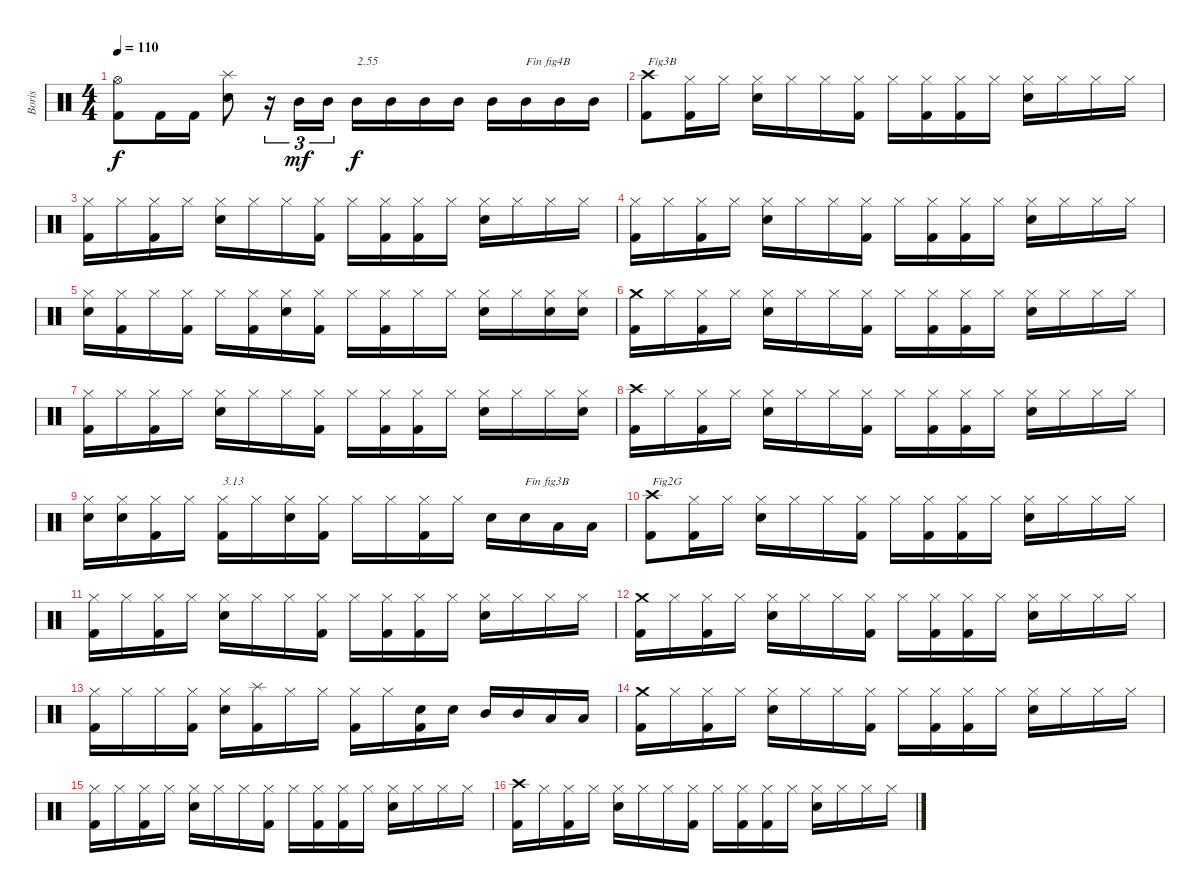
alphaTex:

\track ("Boris" "Boris") {instrument percussion}
\staff {score}
\articulation defaults
\ts (4 4)
\tempo 110
\clef neutral
\ks c
("Kick (hit) 2" "Hi-Hat (open)").8{dy f} "Kick (hit) 2".16 "Kick (hit) 2".16 ("Electric Snare (hit)" "Splash (hit)").8 r.16{tu (3 2)} "Mid Tom (hit)".16{tu (3 2) dy mf} "Mid Tom (hit)".16{tu (3 2)} "Mid Tom (hit)".16{txt "2.55" dy f} "Mid Tom (hit)".16 "Mid Tom (hit)".16 "Mid Tom (hit)".16 "Mid Tom (hit)".16 "Mid Tom (hit)".16{txt "Fin fig4B"} "Mid Tom (hit)".16 "Mid Tom (hit)".16 |
("Kick (hit) 2" "Crash high (hit)").8{txt "Fig3B"} ("Kick (hit) 2" "Hi-Hat (closed)").16 "Hi-Hat (closed)".16 ("Electric Snare (hit)" "Hi-Hat (closed)").16 "Hi-Hat (closed)".16 "Hi-Hat (closed)".16 ("Kick (hit) 2" "Hi-Hat (closed)").16 "Hi-Hat (closed)".16 ("Kick (hit) 2" "Hi-Hat (closed)").16 ("Kick (hit) 2" "Hi-Hat (closed)").16 "Hi-Hat (closed)".16 ("Electric Snare (hit)" "Hi-Hat (closed)").16 "Hi-Hat (closed)".16 "Hi-Hat (closed)".16 "Hi-Hat (closed)".16 |
("Kick (hit) 2" "Hi-Hat (closed)").16 "Hi-Hat (closed)".16 ("Kick (hit) 2" "Hi-Hat (closed)").16 "Hi-Hat (closed)".16 ("Electric Snare (hit)" "Hi-Hat (closed)").16 "Hi-Hat (closed)".16 "Hi-Hat (closed)".16 ("Kick (hit) 2" "Hi-Hat (closed)").16 "Hi-Hat (closed)".16 ("Kick (hit) 2" "Hi-Hat (closed)").16 ("Kick (hit) 2" "Hi-Hat (closed)").16 "Hi-Hat (closed)".16 ("Electric Snare (hit)" "Hi-Hat (closed)").16 "Hi-Hat (closed)".16 "Hi-Hat (closed)".16 "Hi-Hat (closed)".16 |
("Kick (hit) 2" "Hi-Hat (closed)").16 "Hi-Hat (closed)".16 ("Kick (hit) 2" "Hi-Hat (closed)").16 "Hi-Hat (closed)".16 ("Electric Snare (hit)" "Hi-Hat (closed)").16 "Hi-Hat (closed)".16 "Hi-Hat (closed)".16 ("Kick (hit) 2" "Hi-Hat (closed)").16 "Hi-Hat (closed)".16 ("Kick (hit) 2" "Hi-Hat (closed)").16 ("Kick (hit) 2" "Hi-Hat (closed)").16 "Hi-Hat (closed)".16 ("Electric Snare (hit)" "Hi-Hat (closed)").16 "Hi-Hat (closed)".16 "Hi-Hat (closed)".16 "Hi-Hat (closed)".16 |
("Electric Snare (hit)" "Hi-Hat (closed)").16 ("Kick (hit) 2" "Hi-Hat (closed)").16 "Hi-Hat (closed)".16 ("Kick (hit) 2" "Hi-Hat (closed)").16 "Hi-Hat (closed)".16 ("Kick (hit) 2" "Hi-Hat (closed)").16 ("Electric Snare (hit)" "Hi-Hat (closed)").16 ("Kick (hit) 2" "Hi-Hat (closed)").16 "Hi-Hat (closed)".16 ("Kick (hit) 2" "Hi-Hat (closed)").16 "Hi-Hat (closed)".16 "Hi-Hat (closed)".16 ("Electric Snare (hit)" "Hi-Hat (closed)").16 "Hi-Hat (closed)".16 ("Electric Snare (hit)" "Hi-Hat (closed)").16 ("Electric Snare (hit)" "Hi-Hat (closed)").16 |
("Kick (hit) 2" "Crash medium (hit)").16 "Hi-Hat (closed)".16 ("Kick (hit) 2" "Hi-Hat (closed)").16 "Hi-Hat (closed)".16 ("Electric Snare (hit)" "Hi-Hat (closed)").16 "Hi-Hat (closed)".16 "Hi-Hat (closed)".16 ("Kick (hit) 2" "Hi-Hat (closed)").16 "Hi-Hat (closed)".16 ("Kick (hit) 2" "Hi-Hat (closed)").16 ("Kick (hit) 2" "Hi-Hat (closed)").16 "Hi-Hat (closed)".16 ("Electric Snare (hit)" "Hi-Hat (closed)").16 "Hi-Hat (closed)".16 "Hi-Hat (closed)".16 "Hi-Hat (closed)".16 |
("Kick (hit) 2" "Hi-Hat (closed)").16 "Hi-Hat (closed)".16 ("Kick (hit) 2" "Hi-Hat (closed)").16 "Hi-Hat (closed)".16 ("Electric Snare (hit)" "Hi-Hat (closed)").16 "Hi-Hat (closed)".16 "Hi-Hat (closed)".16 ("Kick (hit) 2" "Hi-Hat (closed)").16 "Hi-Hat (closed)".16 ("Kick (hit) 2" "Hi-Hat (closed)").16 ("Kick (hit) 2" "Hi-Hat (closed)").16 "Hi-Hat (closed)".16 ("Electric Snare (hit)" "Hi-Hat (closed)").16 "Hi-Hat (closed)".16 "Hi-Hat (closed)".16 ("Electric Snare (hit)" "Hi-Hat (closed)").16 |
("Kick (hit) 2" "Crash high (hit)").16 "Hi-Hat (closed)".16 ("Kick (hit) 2" "Hi-Hat (closed)").16 "Hi-Hat (closed)".16 ("Electric Snare (hit)" "Hi-Hat (closed)").16 "Hi-Hat (closed)".16 "Hi-Hat (closed)".16 ("Kick (hit) 2" "Hi-Hat (closed)").16 "Hi-Hat (closed)".16 ("Kick (hit) 2" "Hi-Hat (closed)").16 ("Kick (hit) 2" "Hi-Hat (closed)").16 "Hi-Hat (closed)".16 ("Electric Snare (hit)" "Hi-Hat (closed)").16 "Hi-Hat (closed)".16 "Hi-Hat (closed)".16 "Hi-Hat (closed)".16 |
("Electric Snare (hit)" "Hi-Hat (closed)").16 ("Electric Snare (hit)" "Hi-Hat (closed)").16 ("Kick (hit) 2" "Hi-Hat (closed)").16 "Hi-Hat (closed)".16 ("Kick (hit) 2" "Hi-Hat (closed)").16{txt "3.13"} "Hi-Hat (closed)".16 ("Electric Snare (hit)" "Hi-Hat (closed)").16 ("Kick (hit) 2" "Hi-Hat (closed)").16 "Hi-Hat (closed)".16 "Hi-Hat (closed)".16 ("Kick (hit) 2" "Hi-Hat (closed)").16 "Hi-Hat (closed)".16 "Electric Snare (hit)".16 "Electric Snare (hit)".16{txt "Fin fig3B"} "Low Tom (hit)".16 "Low Tom (hit)".16 |
("Kick (hit) 2" "Crash high (hit)").8{txt "Fig2G"} ("Kick (hit) 2" "Hi-Hat (closed)").16 "Hi-Hat (closed)".16 ("Electric Snare (hit)" "Hi-Hat (closed)").16 "Hi-Hat (closed)".16 "Hi-Hat (closed)".16 ("Kick (hit) 2" "Hi-Hat (closed)").16 "Hi-Hat (closed)".16 ("Kick (hit) 2" "Hi-Hat (closed)").16 ("Kick (hit) 2" "Hi-Hat (closed)").16 "Hi-Hat (closed)".16 ("Electric Snare (hit)" "Hi-Hat (closed)").16 "Hi-Hat (closed)".16 "Hi-Hat (closed)".16 "Hi-Hat (closed)".16 |
("Kick (hit) 2" "Hi-Hat (closed)").16 "Hi-Hat (closed)".16 ("Kick (hit) 2" "Hi-Hat (closed)").16 "Hi-Hat (closed)".16 ("Electric Snare (hit)" "Hi-Hat (closed)").16 "Hi-Hat (closed)".16 "Hi-Hat (closed)".16 ("Kick (hit) 2" "Hi-Hat (closed)").16 "Hi-Hat (closed)".16 ("Kick (hit) 2" "Hi-Hat (closed)").16 ("Kick (hit) 2" "Hi-Hat (closed)").16 "Hi-Hat (closed)".16 ("Electric Snare (hit)" "Hi-Hat (closed)").16 "Hi-Hat (closed)".16 "Hi-Hat (closed)".16 "Hi-Hat (closed)".16 |
("Kick (hit) 2" "Crash medium (hit)").16 "Hi-Hat (closed)".16 ("Kick (hit) 2" "Hi-Hat (closed)").16 "Hi-Hat (closed)".16 ("Electric Snare (hit)" "Hi-Hat (closed)").16 "Hi-Hat (closed)".16 "Hi-Hat (closed)".16 ("Kick (hit) 2" "Hi-Hat (closed)").16 "Hi-Hat (closed)".16 ("Kick (hit) 2" "Hi-Hat (closed)").16 ("Kick (hit) 2" "Hi-Hat (closed)").16 "Hi-Hat (closed)".16 ("Electric Snare (hit)" "Hi-Hat (closed)").16 "Hi-Hat (closed)".16 "Hi-Hat (closed)".16 "Hi-Hat (closed)".16 |
("Kick (hit) 2" "Hi-Hat (closed)").16 "Hi-Hat (closed)".16 "Hi-Hat (closed)".16 ("Kick (hit) 2" "Hi-Hat (closed)").16 ("Electric Snare (hit)" "Hi-Hat (closed)").16 ("Kick (hit) 2" "Splash (hit)").16 "Hi-Hat (closed)".16 "Hi-Hat (closed)".16 ("Kick (hit) 2" "Hi-Hat (closed)").16 "Hi-Hat (closed)".16 ("Kick (hit) 2" "Electric Snare (hit)").16 "Electric Snare (hit)".16 "Mid Tom (hit)".16 "Mid Tom (hit)".16 "Low Tom (hit)".16 "Low Tom (hit)".16 |
("Kick (hit) 2" "Crash medium (hit)").16 "Hi-Hat (closed)".16 ("Kick (hit) 2" "Hi-Hat (closed)").16 "Hi-Hat (closed)".16 ("Electric Snare (hit)" "Hi-Hat (closed)").16 "Hi-Hat (closed)".16 "Hi-Hat (closed)".16 ("Kick (hit) 2" "Hi-Hat (closed)").16 "Hi-Hat (closed)".16 ("Kick (hit) 2" "Hi-Hat (closed)").16 ("Kick (hit) 2" "Hi-Hat (closed)").16 "Hi-Hat (closed)".16 ("Electric Snare (hit)" "Hi-Hat (closed)").16 "Hi-Hat (closed)".16 "Hi-Hat (closed)".16 "Hi-Hat (closed)".16 |
("Kick (hit) 2" "Hi-Hat (closed)").16 "Hi-Hat (closed)".16 ("Kick (hit) 2" "Hi-Hat (closed)").16 "Hi-Hat (closed)".16 ("Electric Snare (hit)" "Hi-Hat (closed)").16 "Hi-Hat (closed)".16 "Hi-Hat (closed)".16 ("Kick (hit) 2" "Hi-Hat (closed)").16 "Hi-Hat (closed)".16 ("Kick (hit) 2" "Hi-Hat (closed)").16 ("Kick (hit) 2" "Hi-Hat (closed)").16 "Hi-Hat (closed)".16 ("Electric Snare (hit)" "Hi-Hat (closed)").16 "Hi-Hat (closed)".16 "Hi-Hat (closed)".16 "Hi-Hat (closed)".16 |
("Kick (hit) 2" "Crash high (hit)").16 "Hi-Hat (closed)".16 ("Kick (hit) 2" "Hi-Hat (closed)").16 "Hi-Hat (closed)".16 ("Electric Snare (hit)" "Hi-Hat (closed)").16 "Hi-Hat (closed)".16 "Hi-Hat (closed)".16 ("Kick (hit) 2" "Hi-Hat (closed)").16 "Hi-Hat (closed)".16 ("Kick (hit) 2" "Hi-Hat (closed)").16 ("Kick (hit) 2" "Hi-Hat (closed)").16 "Hi-Hat (closed)".16 ("Electric Snare (hit)" "Hi-Hat (closed)").16 "Hi-Hat (closed)".16 "Hi-Hat (closed)".16 "Hi-Hat (closed)".16
